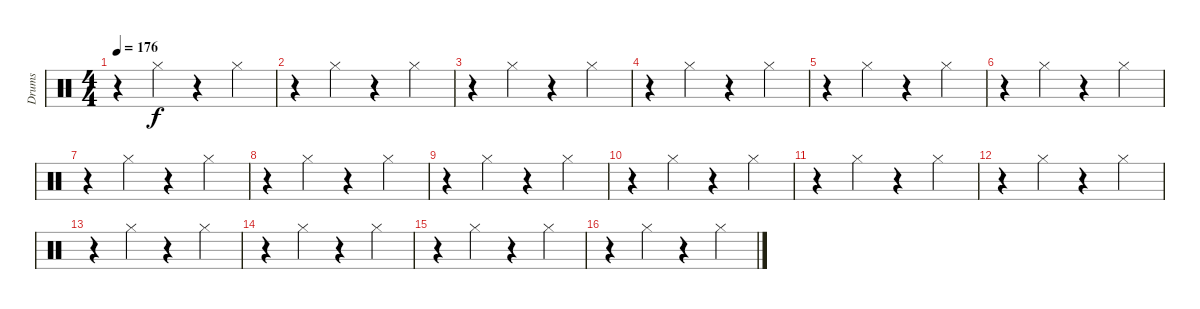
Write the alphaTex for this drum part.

\track ("Drums" "Drums") {instrument percussion}
\staff {score}
\articulation defaults
\ts (4 4)
\tempo 176
\clef neutral
\ks c
r.4{dy f} "Hi-Hat (closed)".4 r.4 "Hi-Hat (closed)".4 |
r.4 "Hi-Hat (closed)".4 r.4 "Hi-Hat (closed)".4 |
r.4 "Hi-Hat (closed)".4 r.4 "Hi-Hat (closed)".4 |
r.4 "Hi-Hat (closed)".4 r.4 "Hi-Hat (closed)".4 |
r.4 "Hi-Hat (closed)".4 r.4 "Hi-Hat (closed)".4 |
r.4 "Hi-Hat (closed)".4 r.4 "Hi-Hat (closed)".4 |
r.4 "Hi-Hat (closed)".4 r.4 "Hi-Hat (closed)".4 |
r.4 "Hi-Hat (closed)".4 r.4 "Hi-Hat (closed)".4 |
r.4 "Hi-Hat (closed)".4 r.4 "Hi-Hat (closed)".4 |
r.4 "Hi-Hat (closed)".4 r.4 "Hi-Hat (closed)".4 |
r.4 "Hi-Hat (closed)".4 r.4 "Hi-Hat (closed)".4 |
r.4 "Hi-Hat (closed)".4 r.4 "Hi-Hat (closed)".4 |
r.4 "Hi-Hat (closed)".4 r.4 "Hi-Hat (closed)".4 |
r.4 "Hi-Hat (closed)".4 r.4 "Hi-Hat (closed)".4 |
r.4 "Hi-Hat (closed)".4 r.4 "Hi-Hat (closed)".4 |
r.4 "Hi-Hat (closed)".4 r.4 "Hi-Hat (closed)".4
